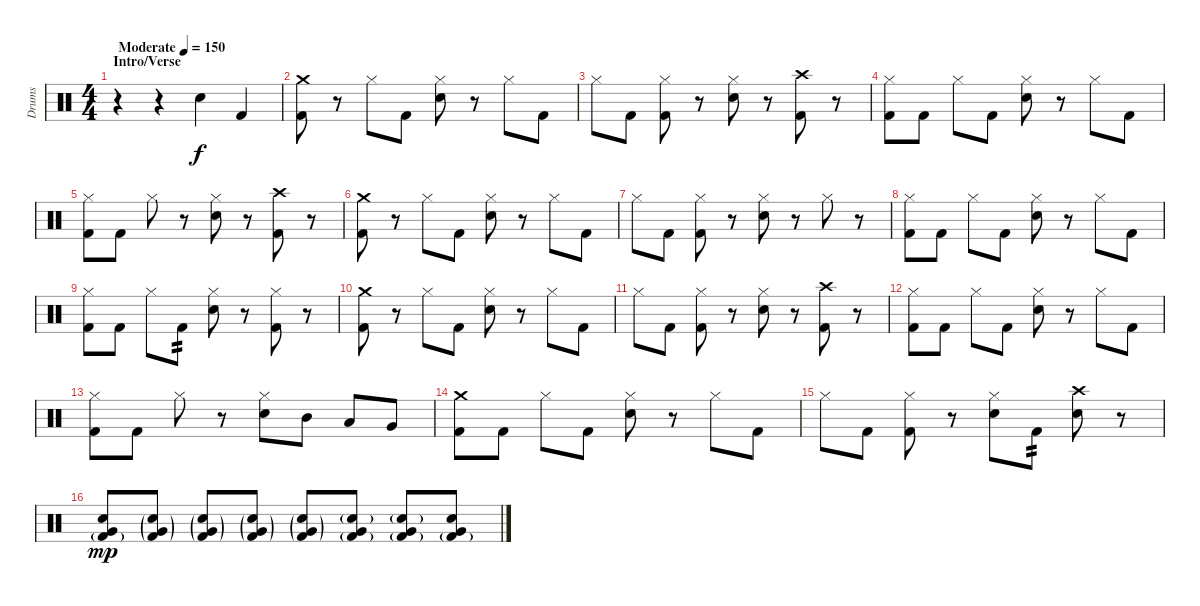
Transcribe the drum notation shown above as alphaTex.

\track ("Drums" "Drums") {instrument percussion}
\staff {score}
\articulation defaults
\ts (4 4)
\section ("" "Intro/Verse")
\tempo (150 "Moderate")
\clef neutral
\ks c
r.4{dy f} r.4 "Electric Snare (hit)".4 "Kick (hit) 2".4 |
("Crash medium (hit)" "Kick (hit) 2").8 r.8 "Hi-Hat (closed)".8 "Kick (hit) 2".8 ("Hi-Hat (closed)" "Electric Snare (hit)").8 r.8 "Hi-Hat (closed)".8 "Kick (hit) 2".8 |
"Hi-Hat (closed)".8 "Kick (hit) 2".8 ("Hi-Hat (closed)" "Kick (hit) 2").8 r.8 ("Hi-Hat (closed)" "Electric Snare (hit)").8 r.8 ("Crash high (hit)" "Kick (hit) 2").8 r.8 |
("Hi-Hat (closed)" "Kick (hit) 2").8 "Kick (hit) 2".8 "Hi-Hat (closed)".8 "Kick (hit) 2".8 ("Hi-Hat (closed)" "Electric Snare (hit)").8 r.8 "Hi-Hat (closed)".8 "Kick (hit) 2".8 |
("Hi-Hat (closed)" "Kick (hit) 2").8 "Kick (hit) 2".8 "Hi-Hat (closed)".8 r.8 ("Hi-Hat (closed)" "Electric Snare (hit)").8 r.8 ("Crash high (hit)" "Kick (hit) 2").8 r.8 |
("Crash medium (hit)" "Kick (hit) 2").8 r.8 "Hi-Hat (closed)".8 "Kick (hit) 2".8 ("Hi-Hat (closed)" "Electric Snare (hit)").8 r.8 "Hi-Hat (closed)".8 "Kick (hit) 2".8 |
"Hi-Hat (closed)".8 "Kick (hit) 2".8 ("Hi-Hat (closed)" "Kick (hit) 2").8 r.8 ("Hi-Hat (closed)" "Electric Snare (hit)").8 r.8 "Hi-Hat (closed)".8 r.8 |
("Hi-Hat (closed)" "Kick (hit) 2").8 "Kick (hit) 2".8 "Hi-Hat (closed)".8 "Kick (hit) 2".8 ("Hi-Hat (closed)" "Electric Snare (hit)").8 r.8 "Hi-Hat (closed)".8 "Kick (hit) 2".8 |
("Hi-Hat (closed)" "Kick (hit) 2").8 "Kick (hit) 2".8 "Hi-Hat (closed)".8 "Kick (hit) 2".8{tp 2} ("Hi-Hat (closed)" "Electric Snare (hit)").8 r.8 ("Hi-Hat (closed)" "Kick (hit) 2").8 r.8 |
("Crash medium (hit)" "Kick (hit) 2").8 r.8 "Hi-Hat (closed)".8 "Kick (hit) 2".8 ("Hi-Hat (closed)" "Electric Snare (hit)").8 r.8 "Hi-Hat (closed)".8 "Kick (hit) 2".8 |
"Hi-Hat (closed)".8 "Kick (hit) 2".8 ("Hi-Hat (closed)" "Kick (hit) 2").8 r.8 ("Hi-Hat (closed)" "Electric Snare (hit)").8 r.8 ("Crash high (hit)" "Kick (hit) 2").8 r.8 |
("Hi-Hat (closed)" "Kick (hit) 2").8 "Kick (hit) 2".8 "Hi-Hat (closed)".8 "Kick (hit) 2".8 ("Hi-Hat (closed)" "Electric Snare (hit)").8 r.8 "Hi-Hat (closed)".8 "Kick (hit) 2".8 |
("Hi-Hat (closed)" "Kick (hit) 2").8 "Kick (hit) 2".8 "Hi-Hat (closed)".8 r.8 ("Hi-Hat (closed)" "Electric Snare (hit)").8 "Mid Tom (hit)".8 "Low Tom (hit)".8 "Very Low Tom (hit)".8 |
("Crash medium (hit)" "Kick (hit) 2").8 "Kick (hit) 2".8 "Hi-Hat (closed)".8 "Kick (hit) 2".8 ("Hi-Hat (closed)" "Electric Snare (hit)").8 r.8 "Hi-Hat (closed)".8 "Kick (hit) 2".8 |
"Hi-Hat (closed)".8 "Kick (hit) 2".8 ("Hi-Hat (closed)" "Kick (hit) 2").8 r.8 ("Hi-Hat (closed)" "Electric Snare (hit)").8 "Kick (hit) 2".8{tp 2} ("Crash high (hit)" "Electric Snare (hit)").8 r.8 |
("Electric Snare (hit)" "Very Low Tom (hit)" "Kick (hit) 2"{g}).8{dy mp} ("Electric Snare (hit)"{g} "Very Low Tom (hit)"{g} "Kick (hit) 2"{g}).8 ("Electric Snare (hit)"{g} "Very Low Tom (hit)"{g} "Kick (hit) 2"{g}).8 ("Electric Snare (hit)"{g} "Very Low Tom (hit)"{g} "Kick (hit) 2"{g}).8 ("Electric Snare (hit)"{g} "Very Low Tom (hit)"{g} "Kick (hit) 2"{g}).8 ("Electric Snare (hit)"{g} "Very Low Tom (hit)" "Kick (hit) 2"{g}).8 ("Electric Snare (hit)"{g} "Very Low Tom (hit)" "Kick (hit) 2"{g}).8 ("Electric Snare (hit)" "Very Low Tom (hit)" "Kick (hit) 2"{g}).8
